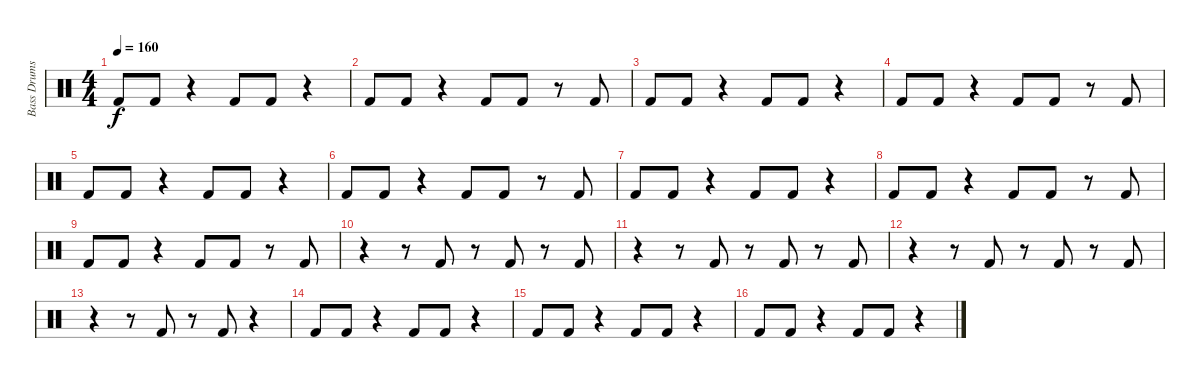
\track ("Bass Drums" "Bass Drums") {instrument percussion}
\staff {score}
\articulation defaults
\ts (4 4)
\tempo 160
\clef neutral
\ks c "Kick (hit) 2".8{dy f} "Kick (hit) 2".8
r.4 "Kick (hit) 2".8 "Kick (hit) 2".8 r.4 |
"Kick (hit) 2".8 "Kick (hit) 2".8 r.4 "Kick (hit) 2".8 "Kick (hit) 2".8 r.8 "Kick (hit) 2".8 |
"Kick (hit) 2".8 "Kick (hit) 2".8 r.4 "Kick (hit) 2".8 "Kick (hit) 2".8 r.4 |
"Kick (hit) 2".8 "Kick (hit) 2".8 r.4 "Kick (hit) 2".8 "Kick (hit) 2".8 r.8 "Kick (hit) 2".8 |
"Kick (hit) 2".8 "Kick (hit) 2".8 r.4 "Kick (hit) 2".8 "Kick (hit) 2".8 r.4 |
"Kick (hit) 2".8 "Kick (hit) 2".8 r.4 "Kick (hit) 2".8 "Kick (hit) 2".8 r.8 "Kick (hit) 2".8 |
"Kick (hit) 2".8 "Kick (hit) 2".8 r.4 "Kick (hit) 2".8 "Kick (hit) 2".8 r.4 |
"Kick (hit) 2".8 "Kick (hit) 2".8 r.4 "Kick (hit) 2".8 "Kick (hit) 2".8 r.8 "Kick (hit) 2".8 |
"Kick (hit) 2".8 "Kick (hit) 2".8 r.4 "Kick (hit) 2".8 "Kick (hit) 2".8 r.8 "Kick (hit) 2".8 |
r.4 r.8 "Kick (hit) 2".8 r.8 "Kick (hit) 2".8 r.8 "Kick (hit) 2".8 |
r.4 r.8 "Kick (hit) 2".8 r.8 "Kick (hit) 2".8 r.8 "Kick (hit) 2".8 |
r.4 r.8 "Kick (hit) 2".8 r.8 "Kick (hit) 2".8 r.8 "Kick (hit) 2".8 |
r.4 r.8 "Kick (hit) 2".8 r.8 "Kick (hit) 2".8 r.4 |
"Kick (hit) 2".8 "Kick (hit) 2".8 r.4 "Kick (hit) 2".8 "Kick (hit) 2".8 r.4 |
"Kick (hit) 2".8 "Kick (hit) 2".8 r.4 "Kick (hit) 2".8 "Kick (hit) 2".8 r.4 |
"Kick (hit) 2".8 "Kick (hit) 2".8 r.4 "Kick (hit) 2".8 "Kick (hit) 2".8 r.4
